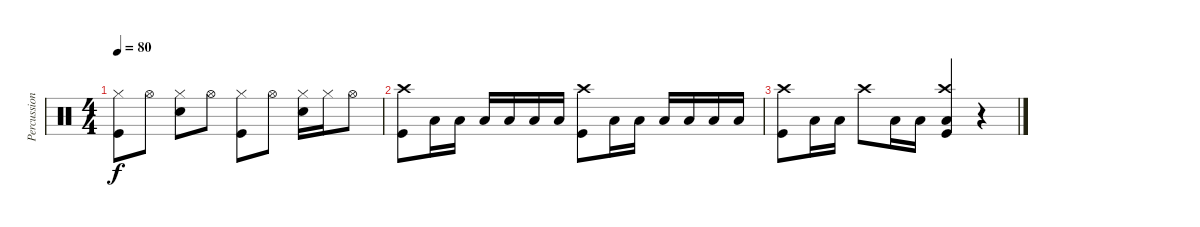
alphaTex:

\track ("Percussion" "Percussion") {instrument percussion}
\staff {score}
\articulation defaults
\ts (4 4)
\tempo 80
\clef neutral
\ks c
("Hi-Hat (closed)" "Kick (hit)").8{dy f} "Hi-Hat (open)".8 ("Hi-Hat (closed)" "Snare (hit) 2").8 "Hi-Hat (open)".8 ("Hi-Hat (closed)" "Kick (hit)").8 "Hi-Hat (open)".8 ("Hi-Hat (closed)" "Snare (hit) 2").16 "Hi-Hat (closed)".16 "Hi-Hat (open)".8 |
("Crash high (hit)" "Kick (hit)").8 "Low Tom (hit)".16 "Low Tom (hit)".16 "Low Tom (hit)".16 "Low Tom (hit)".16 "Low Tom (hit)".16 "Low Tom (hit)".16 ("Crash high (hit)" "Kick (hit)").8 "Low Tom (hit)".16 "Low Tom (hit)".16 "Low Tom (hit)".16 "Low Tom (hit)".16 "Low Tom (hit)".16 "Low Tom (hit)".16 |
("Crash high (hit)" "Kick (hit)").8 "Low Tom (hit)".16 "Low Tom (hit)".16 "Crash high (hit)".8 "Low Tom (hit)".16 "Low Tom (hit)".16 ("Crash high (hit)" "Low Tom (hit)" "Kick (hit)").4 r.4
